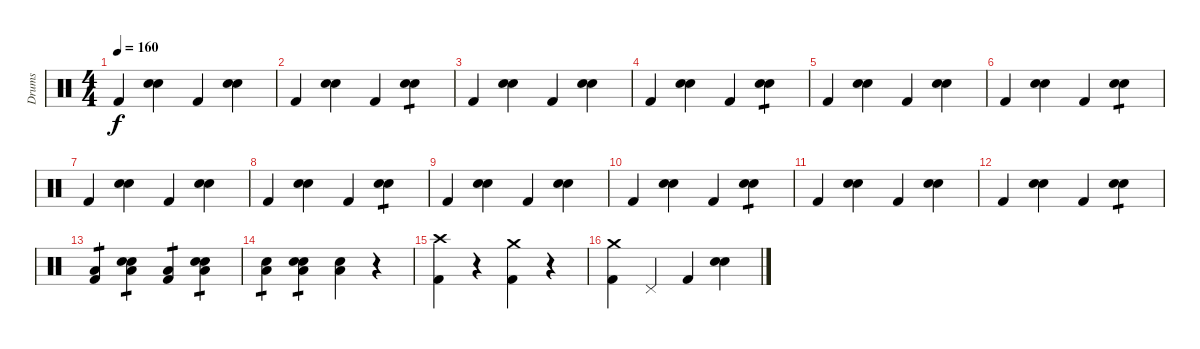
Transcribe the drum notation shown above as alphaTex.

\track ("Drums" "Drums") {instrument percussion}
\staff {score}
\articulation defaults
\ts (4 4)
\tempo 160
\clef neutral
\ks c "Kick (hit) 2".4{dy f}
("Snare (hit) 2" "Electric Snare (hit)").4 "Kick (hit) 2".4 ("Snare (hit) 2" "Electric Snare (hit)").4 |
"Kick (hit) 2".4 ("Snare (hit) 2" "Electric Snare (hit)").4 "Kick (hit) 2".4 ("Snare (hit) 2" "Electric Snare (hit)").4{tp 1} |
"Kick (hit) 2".4 ("Snare (hit) 2" "Electric Snare (hit)").4 "Kick (hit) 2".4 ("Snare (hit) 2" "Electric Snare (hit)").4 |
"Kick (hit) 2".4 ("Snare (hit) 2" "Electric Snare (hit)").4 "Kick (hit) 2".4 ("Snare (hit) 2" "Electric Snare (hit)").4{tp 1} |
"Kick (hit) 2".4 ("Snare (hit) 2" "Electric Snare (hit)").4 "Kick (hit) 2".4 ("Snare (hit) 2" "Electric Snare (hit)").4 |
"Kick (hit) 2".4 ("Snare (hit) 2" "Electric Snare (hit)").4 "Kick (hit) 2".4 ("Snare (hit) 2" "Electric Snare (hit)").4{tp 1} |
"Kick (hit) 2".4 ("Snare (hit) 2" "Electric Snare (hit)").4 "Kick (hit) 2".4 ("Snare (hit) 2" "Electric Snare (hit)").4 |
"Kick (hit) 2".4 ("Snare (hit) 2" "Electric Snare (hit)").4 "Kick (hit) 2".4 ("Snare (hit) 2" "Electric Snare (hit)").4{tp 1} |
"Kick (hit) 2".4 ("Snare (hit) 2" "Electric Snare (hit)").4 "Kick (hit) 2".4 ("Snare (hit) 2" "Electric Snare (hit)").4 |
"Kick (hit) 2".4 ("Snare (hit) 2" "Electric Snare (hit)").4 "Kick (hit) 2".4 ("Snare (hit) 2" "Electric Snare (hit)").4{tp 1} |
"Kick (hit) 2".4 ("Snare (hit) 2" "Electric Snare (hit)").4 "Kick (hit) 2".4 ("Snare (hit) 2" "Electric Snare (hit)").4 |
"Kick (hit) 2".4 ("Snare (hit) 2" "Electric Snare (hit)").4 "Kick (hit) 2".4 ("Snare (hit) 2" "Electric Snare (hit)").4{tp 1} |
("Kick (hit) 2" "Low Floor Tom (hit)").4{tp 1} ("Snare (hit) 2" "Electric Snare (hit)" "Low Floor Tom (hit)").4{tp 1} ("Kick (hit) 2" "Low Floor Tom (hit)").4{tp 1} ("Snare (hit) 2" "Electric Snare (hit)" "Low Floor Tom (hit)").4{tp 1} |
("Snare (hit) 2" "Low Floor Tom (hit)").4{tp 1} ("Snare (hit) 2" "Electric Snare (hit)" "Low Floor Tom (hit)").4{tp 1} ("Snare (hit) 2" "Low Floor Tom (hit)").4 r.4 |
("Kick (hit) 2" "Crash high (hit)").4 r.4 ("Kick (hit) 2" "Crash medium (hit)").4 r.4 |
("Kick (hit) 2" "Crash medium (hit)").4 "Pedal Hi-Hat (hit)".4 "Kick (hit) 2".4 ("Snare (hit) 2" "Electric Snare (hit)").4
